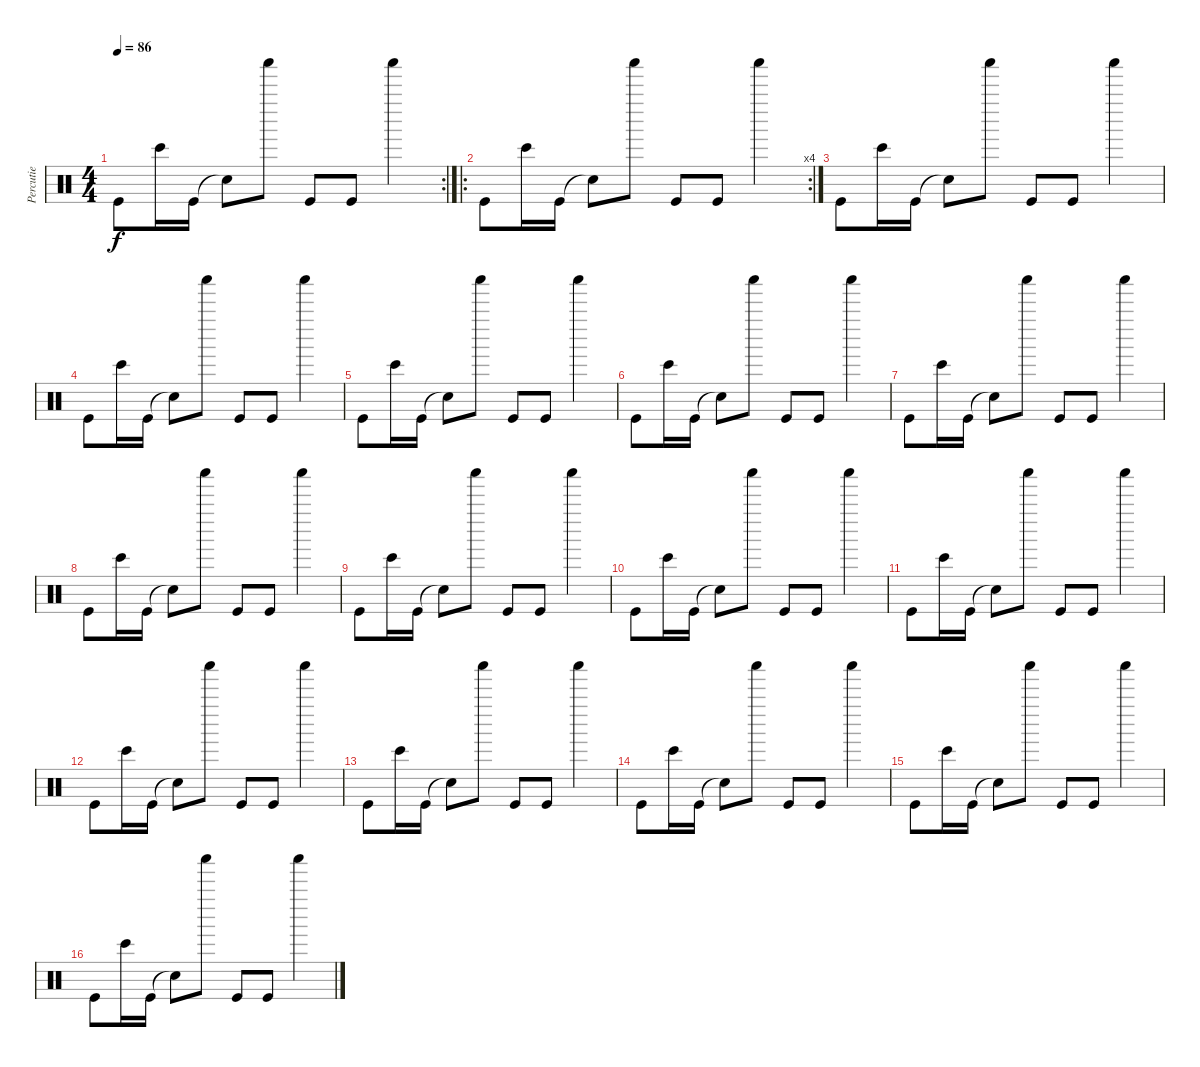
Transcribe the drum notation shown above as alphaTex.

\track ("Percutie" "Percutie") {instrument percussion}
\staff {score}
\articulation defaults
\rc 2
\ts (4 4)
\tempo 86
\clef neutral
\ks c "Kick (hit)".8{dy f} "Bongo High (hit)".16 "Kick (hit)".16 "Snare (hit)"{t}.8 "Shaker (hit)".8 "Kick (hit)".8 "Kick (hit)".8 "Shaker (hit)".4
|
\ro
\rc 4 "Kick (hit)".8 "Bongo High (hit)".16 "Kick (hit)".16 "Snare (hit)"{t}.8 "Shaker (hit)".8 "Kick (hit)".8 "Kick (hit)".8 "Shaker (hit)".4
|
"Kick (hit)".8 "Bongo High (hit)".16 "Kick (hit)".16 "Snare (hit)"{t}.8 "Shaker (hit)".8 "Kick (hit)".8 "Kick (hit)".8 "Shaker (hit)".4 |
"Kick (hit)".8 "Bongo High (hit)".16 "Kick (hit)".16 "Snare (hit)"{t}.8 "Shaker (hit)".8 "Kick (hit)".8 "Kick (hit)".8 "Shaker (hit)".4 |
"Kick (hit)".8 "Bongo High (hit)".16 "Kick (hit)".16 "Snare (hit)"{t}.8 "Shaker (hit)".8 "Kick (hit)".8 "Kick (hit)".8 "Shaker (hit)".4 |
"Kick (hit)".8 "Bongo High (hit)".16 "Kick (hit)".16 "Snare (hit)"{t}.8 "Shaker (hit)".8 "Kick (hit)".8 "Kick (hit)".8 "Shaker (hit)".4 |
"Kick (hit)".8 "Bongo High (hit)".16 "Kick (hit)".16 "Snare (hit)"{t}.8 "Shaker (hit)".8 "Kick (hit)".8 "Kick (hit)".8 "Shaker (hit)".4 |
"Kick (hit)".8 "Bongo High (hit)".16 "Kick (hit)".16 "Snare (hit)"{t}.8 "Shaker (hit)".8 "Kick (hit)".8 "Kick (hit)".8 "Shaker (hit)".4 |
"Kick (hit)".8 "Bongo High (hit)".16 "Kick (hit)".16 "Snare (hit)"{t}.8 "Shaker (hit)".8 "Kick (hit)".8 "Kick (hit)".8 "Shaker (hit)".4 |
"Kick (hit)".8 "Bongo High (hit)".16 "Kick (hit)".16 "Snare (hit)"{t}.8 "Shaker (hit)".8 "Kick (hit)".8 "Kick (hit)".8 "Shaker (hit)".4 |
"Kick (hit)".8 "Bongo High (hit)".16 "Kick (hit)".16 "Snare (hit)"{t}.8 "Shaker (hit)".8 "Kick (hit)".8 "Kick (hit)".8 "Shaker (hit)".4 |
"Kick (hit)".8 "Bongo High (hit)".16 "Kick (hit)".16 "Snare (hit)"{t}.8 "Shaker (hit)".8 "Kick (hit)".8 "Kick (hit)".8 "Shaker (hit)".4 |
"Kick (hit)".8 "Bongo High (hit)".16 "Kick (hit)".16 "Snare (hit)"{t}.8 "Shaker (hit)".8 "Kick (hit)".8 "Kick (hit)".8 "Shaker (hit)".4 |
"Kick (hit)".8 "Bongo High (hit)".16 "Kick (hit)".16 "Snare (hit)"{t}.8 "Shaker (hit)".8 "Kick (hit)".8 "Kick (hit)".8 "Shaker (hit)".4 |
"Kick (hit)".8 "Bongo High (hit)".16 "Kick (hit)".16 "Snare (hit)"{t}.8 "Shaker (hit)".8 "Kick (hit)".8 "Kick (hit)".8 "Shaker (hit)".4 |
"Kick (hit)".8 "Bongo High (hit)".16 "Kick (hit)".16 "Snare (hit)"{t}.8 "Shaker (hit)".8 "Kick (hit)".8 "Kick (hit)".8 "Shaker (hit)".4
